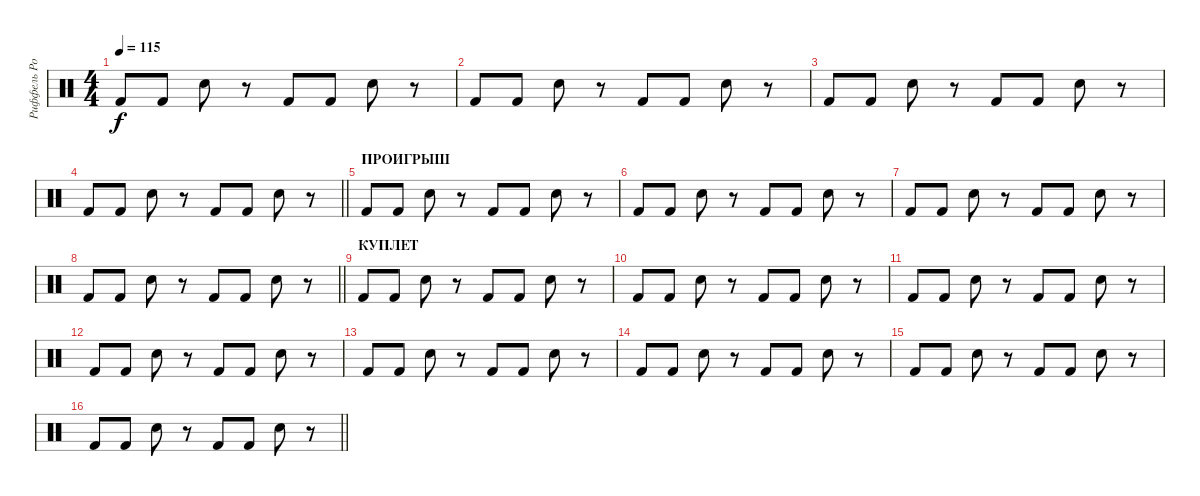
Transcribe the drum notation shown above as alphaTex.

\track ("Риффель Роман (главные)" "Риффель Ро") {instrument percussion}
\staff {score}
\articulation defaults
\ts (4 4)
\tempo 115
\clef neutral
\ks c "Kick (hit) 2".8{dy f} "Kick (hit) 2".8 "Electric Snare (hit)".8
r.8 "Kick (hit) 2".8 "Kick (hit) 2".8 "Electric Snare (hit)".8 r.8 |
"Kick (hit) 2".8 "Kick (hit) 2".8 "Electric Snare (hit)".8 r.8 "Kick (hit) 2".8 "Kick (hit) 2".8 "Electric Snare (hit)".8 r.8 |
"Kick (hit) 2".8 "Kick (hit) 2".8 "Electric Snare (hit)".8 r.8 "Kick (hit) 2".8 "Kick (hit) 2".8 "Electric Snare (hit)".8 r.8 |
\barLineRight lightlight "Kick (hit) 2".8 "Kick (hit) 2".8 "Electric Snare (hit)".8
r.8 "Kick (hit) 2".8 "Kick (hit) 2".8 "Electric Snare (hit)".8 r.8 |
\section ("" "ПРОИГРЫШ")
"Kick (hit) 2".8 "Kick (hit) 2".8 "Electric Snare (hit)".8 r.8 "Kick (hit) 2".8 "Kick (hit) 2".8 "Electric Snare (hit)".8 r.8 |
"Kick (hit) 2".8 "Kick (hit) 2".8 "Electric Snare (hit)".8 r.8 "Kick (hit) 2".8 "Kick (hit) 2".8 "Electric Snare (hit)".8 r.8 |
"Kick (hit) 2".8 "Kick (hit) 2".8 "Electric Snare (hit)".8 r.8 "Kick (hit) 2".8 "Kick (hit) 2".8 "Electric Snare (hit)".8 r.8 |
\barLineRight lightlight "Kick (hit) 2".8 "Kick (hit) 2".8 "Electric Snare (hit)".8
r.8 "Kick (hit) 2".8 "Kick (hit) 2".8 "Electric Snare (hit)".8 r.8 |
\section ("" "КУПЛЕТ")
"Kick (hit) 2".8 "Kick (hit) 2".8 "Electric Snare (hit)".8 r.8 "Kick (hit) 2".8 "Kick (hit) 2".8 "Electric Snare (hit)".8 r.8 |
"Kick (hit) 2".8 "Kick (hit) 2".8 "Electric Snare (hit)".8 r.8 "Kick (hit) 2".8 "Kick (hit) 2".8 "Electric Snare (hit)".8 r.8 |
"Kick (hit) 2".8 "Kick (hit) 2".8 "Electric Snare (hit)".8 r.8 "Kick (hit) 2".8 "Kick (hit) 2".8 "Electric Snare (hit)".8 r.8 |
"Kick (hit) 2".8 "Kick (hit) 2".8 "Electric Snare (hit)".8 r.8 "Kick (hit) 2".8 "Kick (hit) 2".8 "Electric Snare (hit)".8 r.8 |
"Kick (hit) 2".8 "Kick (hit) 2".8 "Electric Snare (hit)".8 r.8 "Kick (hit) 2".8 "Kick (hit) 2".8 "Electric Snare (hit)".8 r.8 |
"Kick (hit) 2".8 "Kick (hit) 2".8 "Electric Snare (hit)".8 r.8 "Kick (hit) 2".8 "Kick (hit) 2".8 "Electric Snare (hit)".8 r.8 |
"Kick (hit) 2".8 "Kick (hit) 2".8 "Electric Snare (hit)".8 r.8 "Kick (hit) 2".8 "Kick (hit) 2".8 "Electric Snare (hit)".8 r.8 |
\barLineRight lightlight "Kick (hit) 2".8 "Kick (hit) 2".8 "Electric Snare (hit)".8
r.8 "Kick (hit) 2".8 "Kick (hit) 2".8 "Electric Snare (hit)".8 r.8
